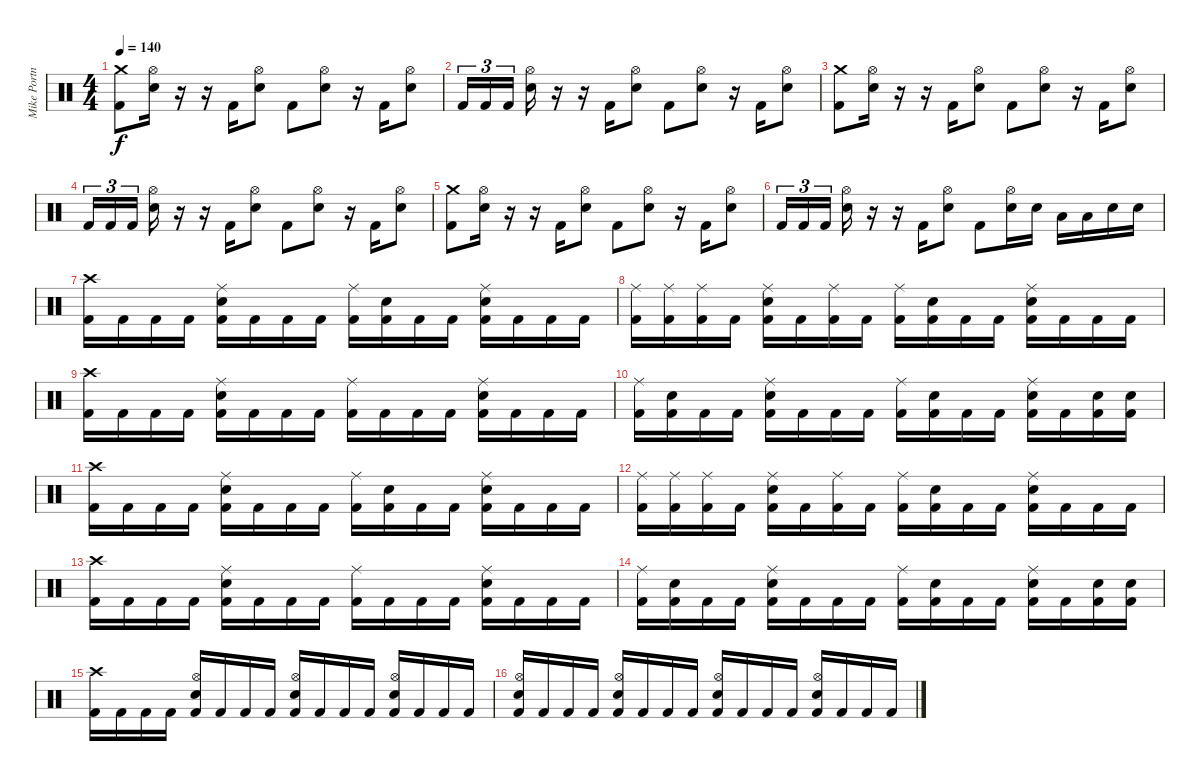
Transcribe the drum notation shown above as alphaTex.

\track ("Mike Portnoy" "Mike Portn") {instrument percussion}
\staff {score}
\articulation defaults
\ts (4 4)
\tempo 140
\clef neutral
\ks c
("Crash medium (hit)" "Kick (hit) 2").8{dy f} ("Hi-Hat (open)" "Snare (hit) 2").16 r.16 r.16 "Kick (hit) 2".16 ("Hi-Hat (open)" "Snare (hit) 2").8 "Kick (hit) 2".8 ("Hi-Hat (open)" "Snare (hit) 2").8 r.16 "Kick (hit) 2".16 ("Hi-Hat (open)" "Snare (hit) 2").8 |
"Kick (hit) 2".16{tu (3 2)} "Kick (hit) 2".16{tu (3 2)} "Kick (hit) 2".16{tu (3 2)} ("Hi-Hat (open)" "Snare (hit) 2").16 r.16 r.16 "Kick (hit) 2".16 ("Hi-Hat (open)" "Snare (hit) 2").8 "Kick (hit) 2".8 ("Hi-Hat (open)" "Snare (hit) 2").8 r.16 "Kick (hit) 2".16 ("Hi-Hat (open)" "Snare (hit) 2").8 |
("Crash medium (hit)" "Kick (hit) 2").8 ("Hi-Hat (open)" "Snare (hit) 2").16 r.16 r.16 "Kick (hit) 2".16 ("Hi-Hat (open)" "Snare (hit) 2").8 "Kick (hit) 2".8 ("Hi-Hat (open)" "Snare (hit) 2").8 r.16 "Kick (hit) 2".16 ("Hi-Hat (open)" "Snare (hit) 2").8 |
"Kick (hit) 2".16{tu (3 2)} "Kick (hit) 2".16{tu (3 2)} "Kick (hit) 2".16{tu (3 2)} ("Hi-Hat (open)" "Snare (hit) 2").16 r.16 r.16 "Kick (hit) 2".16 ("Hi-Hat (open)" "Snare (hit) 2").8 "Kick (hit) 2".8 ("Hi-Hat (open)" "Snare (hit) 2").8 r.16 "Kick (hit) 2".16 ("Hi-Hat (open)" "Snare (hit) 2").8 |
("Crash medium (hit)" "Kick (hit) 2").8 ("Hi-Hat (open)" "Snare (hit) 2").16 r.16 r.16 "Kick (hit) 2".16 ("Hi-Hat (open)" "Snare (hit) 2").8 "Kick (hit) 2".8 ("Hi-Hat (open)" "Snare (hit) 2").8 r.16 "Kick (hit) 2".16 ("Hi-Hat (open)" "Snare (hit) 2").8 |
"Kick (hit) 2".16{tu (3 2)} "Kick (hit) 2".16{tu (3 2)} "Kick (hit) 2".16{tu (3 2)} ("Hi-Hat (open)" "Snare (hit) 2").16 r.16 r.16 "Kick (hit) 2".16 ("Hi-Hat (open)" "Snare (hit) 2").8 "Kick (hit) 2".8 ("Hi-Hat (open)" "Snare (hit) 2").16 "Snare (hit) 2".16 "Low Tom (hit)".16 "Low Tom (hit)".16 "Snare (hit) 2".16 "Snare (hit) 2".16 |
("Crash high (hit)" "Kick (hit) 2").16 "Kick (hit) 2".16 "Kick (hit) 2".16 "Kick (hit) 2".16 ("Ride (middle)" "Snare (hit) 2" "Kick (hit) 2").16 "Kick (hit) 2".16 "Kick (hit) 2".16 "Kick (hit) 2".16 ("Ride (middle)" "Kick (hit) 2").16 ("Snare (hit) 2" "Kick (hit) 2").16 "Kick (hit) 2".16 "Kick (hit) 2".16 ("Ride (middle)" "Snare (hit) 2" "Kick (hit) 2").16 "Kick (hit) 2".16 "Kick (hit) 2".16 "Kick (hit) 2".16 |
("Ride (middle)" "Kick (hit) 2").16 ("Ride (middle)" "Kick (hit) 2").16 ("Ride (middle)" "Kick (hit) 2").16 "Kick (hit) 2".16 ("Ride (middle)" "Snare (hit) 2" "Kick (hit) 2").16 "Kick (hit) 2".16 ("Ride (middle)" "Kick (hit) 2").16 "Kick (hit) 2".16 ("Ride (middle)" "Kick (hit) 2").16 ("Snare (hit) 2" "Kick (hit) 2").16 "Kick (hit) 2".16 "Kick (hit) 2".16 ("Ride (middle)" "Snare (hit) 2" "Kick (hit) 2").16 "Kick (hit) 2".16 "Kick (hit) 2".16 "Kick (hit) 2".16 |
("Crash high (hit)" "Kick (hit) 2").16 "Kick (hit) 2".16 "Kick (hit) 2".16 "Kick (hit) 2".16 ("Ride (middle)" "Snare (hit) 2" "Kick (hit) 2").16 "Kick (hit) 2".16 "Kick (hit) 2".16 "Kick (hit) 2".16 ("Ride (middle)" "Kick (hit) 2").16 "Kick (hit) 2".16 "Kick (hit) 2".16 "Kick (hit) 2".16 ("Ride (middle)" "Snare (hit) 2" "Kick (hit) 2").16 "Kick (hit) 2".16 "Kick (hit) 2".16 "Kick (hit) 2".16 |
("Ride (middle)" "Kick (hit) 2").16 ("Snare (hit) 2" "Kick (hit) 2").16 "Kick (hit) 2".16 "Kick (hit) 2".16 ("Ride (middle)" "Snare (hit) 2" "Kick (hit) 2").16 "Kick (hit) 2".16 "Kick (hit) 2".16 "Kick (hit) 2".16 ("Ride (middle)" "Kick (hit) 2").16 ("Snare (hit) 2" "Kick (hit) 2").16 "Kick (hit) 2".16 "Kick (hit) 2".16 ("Ride (middle)" "Snare (hit) 2" "Kick (hit) 2").16 "Kick (hit) 2".16 ("Snare (hit) 2" "Kick (hit) 2").16 ("Snare (hit) 2" "Kick (hit) 2").16 |
("Crash high (hit)" "Kick (hit) 2").16 "Kick (hit) 2".16 "Kick (hit) 2".16 "Kick (hit) 2".16 ("Ride (middle)" "Snare (hit) 2" "Kick (hit) 2").16 "Kick (hit) 2".16 "Kick (hit) 2".16 "Kick (hit) 2".16 ("Ride (middle)" "Kick (hit) 2").16 ("Snare (hit) 2" "Kick (hit) 2").16 "Kick (hit) 2".16 "Kick (hit) 2".16 ("Ride (middle)" "Snare (hit) 2" "Kick (hit) 2").16 "Kick (hit) 2".16 "Kick (hit) 2".16 "Kick (hit) 2".16 |
("Ride (middle)" "Kick (hit) 2").16 ("Ride (middle)" "Kick (hit) 2").16 ("Ride (middle)" "Kick (hit) 2").16 "Kick (hit) 2".16 ("Ride (middle)" "Snare (hit) 2" "Kick (hit) 2").16 "Kick (hit) 2".16 ("Ride (middle)" "Kick (hit) 2").16 "Kick (hit) 2".16 ("Ride (middle)" "Kick (hit) 2").16 ("Snare (hit) 2" "Kick (hit) 2").16 "Kick (hit) 2".16 "Kick (hit) 2".16 ("Ride (middle)" "Snare (hit) 2" "Kick (hit) 2").16 "Kick (hit) 2".16 "Kick (hit) 2".16 "Kick (hit) 2".16 |
("Crash high (hit)" "Kick (hit) 2").16 "Kick (hit) 2".16 "Kick (hit) 2".16 "Kick (hit) 2".16 ("Ride (middle)" "Snare (hit) 2" "Kick (hit) 2").16 "Kick (hit) 2".16 "Kick (hit) 2".16 "Kick (hit) 2".16 ("Ride (middle)" "Kick (hit) 2").16 "Kick (hit) 2".16 "Kick (hit) 2".16 "Kick (hit) 2".16 ("Ride (middle)" "Snare (hit) 2" "Kick (hit) 2").16 "Kick (hit) 2".16 "Kick (hit) 2".16 "Kick (hit) 2".16 |
("Ride (middle)" "Kick (hit) 2").16 ("Snare (hit) 2" "Kick (hit) 2").16 "Kick (hit) 2".16 "Kick (hit) 2".16 ("Ride (middle)" "Snare (hit) 2" "Kick (hit) 2").16 "Kick (hit) 2".16 "Kick (hit) 2".16 "Kick (hit) 2".16 ("Ride (middle)" "Kick (hit) 2").16 ("Snare (hit) 2" "Kick (hit) 2").16 "Kick (hit) 2".16 "Kick (hit) 2".16 ("Ride (middle)" "Snare (hit) 2" "Kick (hit) 2").16 "Kick (hit) 2".16 ("Snare (hit) 2" "Kick (hit) 2").16 ("Snare (hit) 2" "Kick (hit) 2").16 |
("Crash high (hit)" "Kick (hit) 2").16 "Kick (hit) 2".16 "Kick (hit) 2".16 "Kick (hit) 2".16 ("Hi-Hat (open)" "Snare (hit) 2" "Kick (hit) 2").16 "Kick (hit) 2".16 "Kick (hit) 2".16 "Kick (hit) 2".16 ("Hi-Hat (open)" "Snare (hit) 2" "Kick (hit) 2").16 "Kick (hit) 2".16 "Kick (hit) 2".16 "Kick (hit) 2".16 ("Hi-Hat (open)" "Snare (hit) 2" "Kick (hit) 2").16 "Kick (hit) 2".16 "Kick (hit) 2".16 "Kick (hit) 2".16 |
("Hi-Hat (open)" "Snare (hit) 2" "Kick (hit) 2").16 "Kick (hit) 2".16 "Kick (hit) 2".16 "Kick (hit) 2".16 ("Hi-Hat (open)" "Snare (hit) 2" "Kick (hit) 2").16 "Kick (hit) 2".16 "Kick (hit) 2".16 "Kick (hit) 2".16 ("Hi-Hat (open)" "Snare (hit) 2" "Kick (hit) 2").16 "Kick (hit) 2".16 "Kick (hit) 2".16 "Kick (hit) 2".16 ("Hi-Hat (open)" "Snare (hit) 2" "Kick (hit) 2").16 "Kick (hit) 2".16 "Kick (hit) 2".16 "Kick (hit) 2".16
